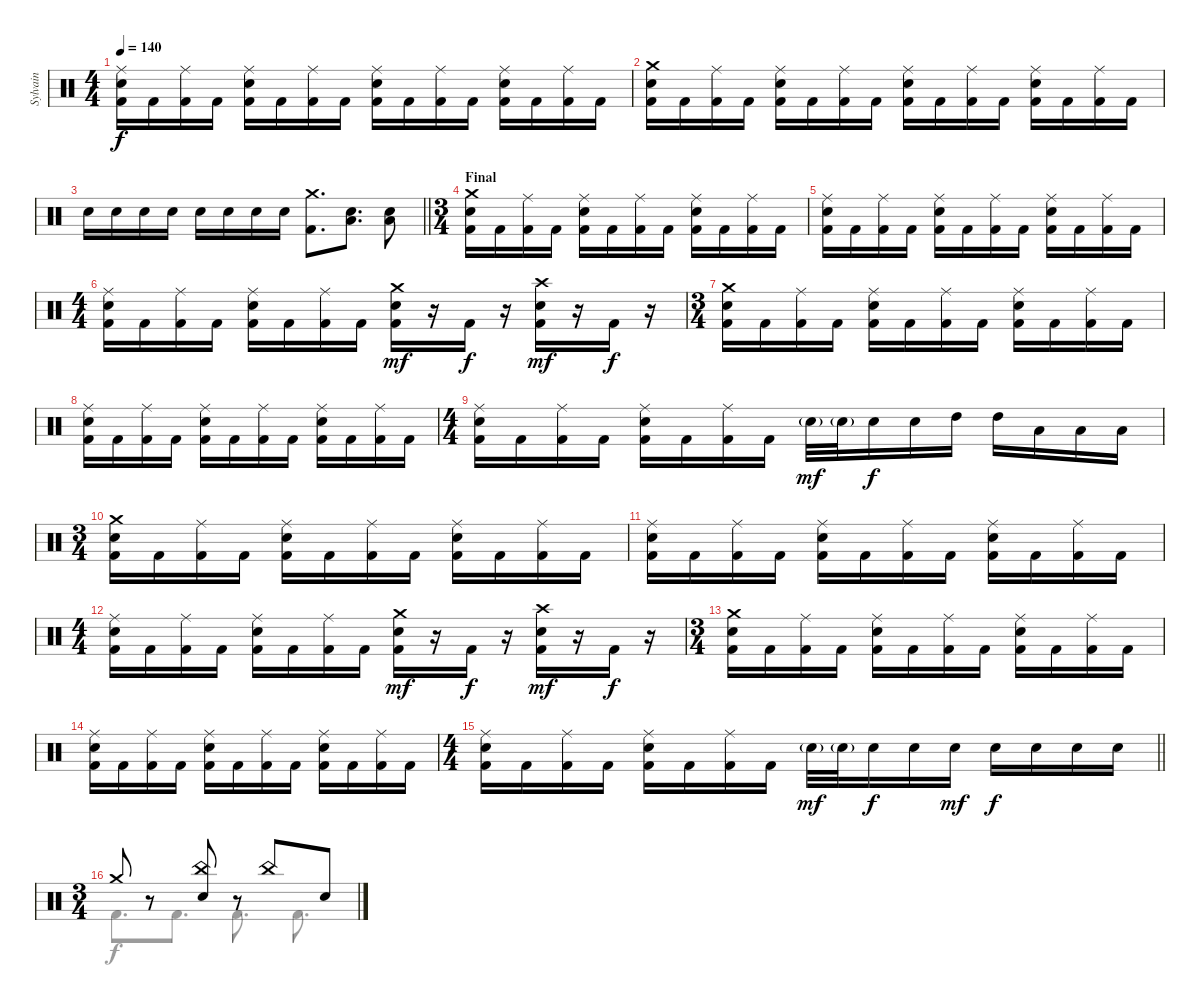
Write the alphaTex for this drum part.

\track ("Sylvain" "Sylvain") {instrument percussion}
\staff {score}
\articulation defaults
\voice
\ts (4 4)
\tempo 140
\clef neutral
\ks c
("Ride (middle)" "Snare (hit) 2" "Kick (hit) 2").16{dy f} "Kick (hit) 2".16 ("Ride (middle)" "Kick (hit) 2").16 "Kick (hit) 2".16 ("Ride (middle)" "Snare (hit) 2" "Kick (hit) 2").16 "Kick (hit) 2".16 ("Ride (middle)" "Kick (hit) 2").16 "Kick (hit) 2".16 ("Ride (middle)" "Snare (hit) 2" "Kick (hit) 2").16 "Kick (hit) 2".16 ("Ride (middle)" "Kick (hit) 2").16 "Kick (hit) 2".16 ("Ride (middle)" "Snare (hit) 2" "Kick (hit) 2").16 "Kick (hit) 2".16 ("Ride (middle)" "Kick (hit) 2").16 "Kick (hit) 2".16 |
("Crash medium (hit)" "Snare (hit) 2" "Kick (hit) 2").16 "Kick (hit) 2".16 ("Ride (middle)" "Kick (hit) 2").16 "Kick (hit) 2".16 ("Ride (middle)" "Snare (hit) 2" "Kick (hit) 2").16 "Kick (hit) 2".16 ("Ride (middle)" "Kick (hit) 2").16 "Kick (hit) 2".16 ("Ride (middle)" "Snare (hit) 2" "Kick (hit) 2").16 "Kick (hit) 2".16 ("Ride (middle)" "Kick (hit) 2").16 "Kick (hit) 2".16 ("Ride (middle)" "Snare (hit) 2" "Kick (hit) 2").16 "Kick (hit) 2".16 ("Ride (middle)" "Kick (hit) 2").16 "Kick (hit) 2".16 |
\barLineRight lightlight "Snare (hit) 2".16 "Snare (hit) 2".16 "Snare (hit) 2".16 "Snare (hit) 2".16 "Snare (hit) 2".16 "Snare (hit) 2".16 "Snare (hit) 2".16 "Snare (hit) 2".16
("Crash medium (hit)" "Kick (hit) 2").8{d} ("Snare (hit) 2" "Low Floor Tom (hit)").8{d} ("Snare (hit) 2" "Low Floor Tom (hit)").8 |
\ts (3 4)
\section ("" "Final")
("Crash medium (hit)" "Snare (hit) 2" "Kick (hit) 2").16 "Kick (hit) 2".16 ("Ride (middle)" "Kick (hit) 2").16 "Kick (hit) 2".16 ("Ride (middle)" "Snare (hit) 2" "Kick (hit) 2").16 "Kick (hit) 2".16 ("Ride (middle)" "Kick (hit) 2").16 "Kick (hit) 2".16 ("Ride (middle)" "Snare (hit) 2" "Kick (hit) 2").16 "Kick (hit) 2".16 ("Ride (middle)" "Kick (hit) 2").16 "Kick (hit) 2".16 |
("Ride (middle)" "Snare (hit) 2" "Kick (hit) 2").16 "Kick (hit) 2".16 ("Ride (middle)" "Kick (hit) 2").16 "Kick (hit) 2".16 ("Ride (middle)" "Snare (hit) 2" "Kick (hit) 2").16 "Kick (hit) 2".16 ("Ride (middle)" "Kick (hit) 2").16 "Kick (hit) 2".16 ("Ride (middle)" "Snare (hit) 2" "Kick (hit) 2").16 "Kick (hit) 2".16 ("Ride (middle)" "Kick (hit) 2").16 "Kick (hit) 2".16 |
\ts (4 4)
("Ride (middle)" "Snare (hit) 2" "Kick (hit) 2").16 "Kick (hit) 2".16 ("Ride (middle)" "Kick (hit) 2").16 "Kick (hit) 2".16 ("Ride (middle)" "Snare (hit) 2" "Kick (hit) 2").16 "Kick (hit) 2".16 ("Ride (middle)" "Kick (hit) 2").16 "Kick (hit) 2".16 ("Crash medium (hit)" "Snare (hit) 2" "Kick (hit) 2").16{dy mf} r.16 "Kick (hit) 2".16{dy f} r.16 ("Crash high (hit)" "Snare (hit) 2" "Kick (hit) 2").16{dy mf} r.16 "Kick (hit) 2".16{dy f} r.16 |
\ts (3 4)
("Crash medium (hit)" "Snare (hit) 2" "Kick (hit) 2").16 "Kick (hit) 2".16 ("Ride (middle)" "Kick (hit) 2").16 "Kick (hit) 2".16 ("Ride (middle)" "Snare (hit) 2" "Kick (hit) 2").16 "Kick (hit) 2".16 ("Ride (middle)" "Kick (hit) 2").16 "Kick (hit) 2".16 ("Ride (middle)" "Snare (hit) 2" "Kick (hit) 2").16 "Kick (hit) 2".16 ("Ride (middle)" "Kick (hit) 2").16 "Kick (hit) 2".16 |
("Ride (middle)" "Snare (hit) 2" "Kick (hit) 2").16 "Kick (hit) 2".16 ("Ride (middle)" "Kick (hit) 2").16 "Kick (hit) 2".16 ("Ride (middle)" "Snare (hit) 2" "Kick (hit) 2").16 "Kick (hit) 2".16 ("Ride (middle)" "Kick (hit) 2").16 "Kick (hit) 2".16 ("Ride (middle)" "Snare (hit) 2" "Kick (hit) 2").16 "Kick (hit) 2".16 ("Ride (middle)" "Kick (hit) 2").16 "Kick (hit) 2".16 |
\ts (4 4)
("Ride (middle)" "Snare (hit) 2" "Kick (hit) 2").16 "Kick (hit) 2".16 ("Ride (middle)" "Kick (hit) 2").16 "Kick (hit) 2".16 ("Ride (middle)" "Snare (hit) 2" "Kick (hit) 2").16 "Kick (hit) 2".16 ("Ride (middle)" "Kick (hit) 2").16 "Kick (hit) 2".16 "Snare (hit) 2"{g}.32{dy mf} "Snare (hit) 2"{g}.32 "Snare (hit) 2".16{dy f} "Snare (hit) 2".16 "High Tom (hit)".16 "High Tom (hit)".16 "Low Tom (hit)".16 "Low Tom (hit)".16 "Low Floor Tom (hit)".16 |
\ts (3 4)
("Crash medium (hit)" "Snare (hit) 2" "Kick (hit) 2").16 "Kick (hit) 2".16 ("Ride (middle)" "Kick (hit) 2").16 "Kick (hit) 2".16 ("Ride (middle)" "Snare (hit) 2" "Kick (hit) 2").16 "Kick (hit) 2".16 ("Ride (middle)" "Kick (hit) 2").16 "Kick (hit) 2".16 ("Ride (middle)" "Snare (hit) 2" "Kick (hit) 2").16 "Kick (hit) 2".16 ("Ride (middle)" "Kick (hit) 2").16 "Kick (hit) 2".16 |
("Ride (middle)" "Snare (hit) 2" "Kick (hit) 2").16 "Kick (hit) 2".16 ("Ride (middle)" "Kick (hit) 2").16 "Kick (hit) 2".16 ("Ride (middle)" "Snare (hit) 2" "Kick (hit) 2").16 "Kick (hit) 2".16 ("Ride (middle)" "Kick (hit) 2").16 "Kick (hit) 2".16 ("Ride (middle)" "Snare (hit) 2" "Kick (hit) 2").16 "Kick (hit) 2".16 ("Ride (middle)" "Kick (hit) 2").16 "Kick (hit) 2".16 |
\ts (4 4)
("Ride (middle)" "Snare (hit) 2" "Kick (hit) 2").16 "Kick (hit) 2".16 ("Ride (middle)" "Kick (hit) 2").16 "Kick (hit) 2".16 ("Ride (middle)" "Snare (hit) 2" "Kick (hit) 2").16 "Kick (hit) 2".16 ("Ride (middle)" "Kick (hit) 2").16 "Kick (hit) 2".16 ("Crash medium (hit)" "Snare (hit) 2" "Kick (hit) 2").16{dy mf} r.16 "Kick (hit) 2".16{dy f} r.16 ("Crash high (hit)" "Snare (hit) 2" "Kick (hit) 2").16{dy mf} r.16 "Kick (hit) 2".16{dy f} r.16 |
\ts (3 4)
("Crash medium (hit)" "Snare (hit) 2" "Kick (hit) 2").16 "Kick (hit) 2".16 ("Ride (middle)" "Kick (hit) 2").16 "Kick (hit) 2".16 ("Ride (middle)" "Snare (hit) 2" "Kick (hit) 2").16 "Kick (hit) 2".16 ("Ride (middle)" "Kick (hit) 2").16 "Kick (hit) 2".16 ("Ride (middle)" "Snare (hit) 2" "Kick (hit) 2").16 "Kick (hit) 2".16 ("Ride (middle)" "Kick (hit) 2").16 "Kick (hit) 2".16 |
("Ride (middle)" "Snare (hit) 2" "Kick (hit) 2").16 "Kick (hit) 2".16 ("Ride (middle)" "Kick (hit) 2").16 "Kick (hit) 2".16 ("Ride (middle)" "Snare (hit) 2" "Kick (hit) 2").16 "Kick (hit) 2".16 ("Ride (middle)" "Kick (hit) 2").16 "Kick (hit) 2".16 ("Ride (middle)" "Snare (hit) 2" "Kick (hit) 2").16 "Kick (hit) 2".16 ("Ride (middle)" "Kick (hit) 2").16 "Kick (hit) 2".16 |
\ts (4 4)
\barLineRight lightlight
("Ride (middle)" "Snare (hit) 2" "Kick (hit) 2").16 "Kick (hit) 2".16 ("Ride (middle)" "Kick (hit) 2").16 "Kick (hit) 2".16 ("Ride (middle)" "Snare (hit) 2" "Kick (hit) 2").16 "Kick (hit) 2".16 ("Ride (middle)" "Kick (hit) 2").16 "Kick (hit) 2".16 "Snare (hit) 2"{g}.32{dy mf} "Snare (hit) 2"{g}.32 "Snare (hit) 2".16{dy f} "Snare (hit) 2".16 "Snare (hit) 2".16{dy mf} "Snare (hit) 2".16{dy f} "Snare (hit) 2".16 "Snare (hit) 2".16 "Snare (hit) 2".16 |
\ts (3 4)
"Crash medium (hit)".8 r.8 ("China (hit)" "Snare (hit) 2").8 r.8 "China (hit)".8 "Snare (hit) 2".8
\voice
\clef neutral
\ottava regular
\simile none
\ks c
|
|
\barLineRight lightlight
|
|
|
|
|
|
|
|
|
|
|
|
\barLineRight lightlight
|
"Kick (hit) 2".8{d} "Kick (hit) 2".8{d} "Kick (hit) 2".8{d} "Kick (hit) 2".8{d}
